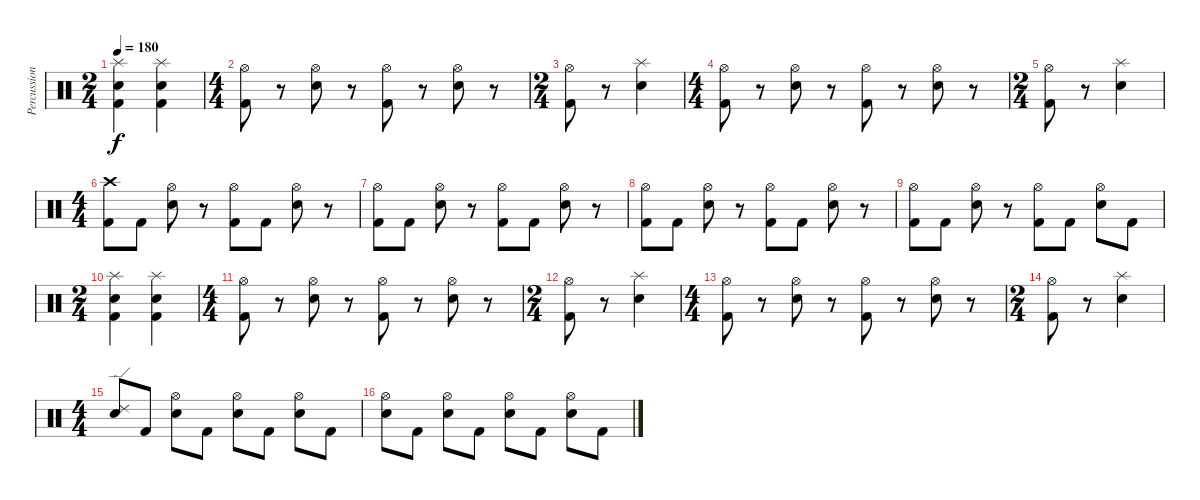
\track ("Percussion" "Percussion") {instrument percussion}
\staff {score}
\articulation defaults
\ts (2 4)
\tempo 180
\clef neutral
\ks c
("Splash (hit)" "Electric Snare (hit)" "Kick (hit) 2").4{dy f} ("Splash (hit)" "Electric Snare (hit)" "Kick (hit) 2").4 |
\ts (4 4)
("Hi-Hat (open)" "Kick (hit) 2").8 r.8 ("Hi-Hat (open)" "Electric Snare (hit)").8 r.8 ("Hi-Hat (open)" "Kick (hit) 2").8 r.8 ("Hi-Hat (open)" "Electric Snare (hit)").8 r.8 |
\ts (2 4)
("Hi-Hat (open)" "Kick (hit) 2").8 r.8 ("Splash (hit)" "Electric Snare (hit)").4 |
\ts (4 4)
("Hi-Hat (open)" "Kick (hit) 2").8 r.8 ("Hi-Hat (open)" "Electric Snare (hit)").8 r.8 ("Hi-Hat (open)" "Kick (hit) 2").8 r.8 ("Hi-Hat (open)" "Electric Snare (hit)").8 r.8 |
\ts (2 4)
("Hi-Hat (open)" "Kick (hit) 2").8 r.8 ("Splash (hit)" "Electric Snare (hit)").4 |
\ts (4 4)
("Crash high (hit)" "Kick (hit) 2").8 "Kick (hit) 2".8 ("Hi-Hat (open)" "Electric Snare (hit)").8 r.8 ("Hi-Hat (open)" "Kick (hit) 2").8 "Kick (hit) 2".8 ("Hi-Hat (open)" "Electric Snare (hit)").8 r.8 |
("Hi-Hat (open)" "Kick (hit) 2").8 "Kick (hit) 2".8 ("Hi-Hat (open)" "Electric Snare (hit)").8 r.8 ("Hi-Hat (open)" "Kick (hit) 2").8 "Kick (hit) 2".8 ("Hi-Hat (open)" "Electric Snare (hit)").8 r.8 |
("Hi-Hat (open)" "Kick (hit) 2").8 "Kick (hit) 2".8 ("Hi-Hat (open)" "Electric Snare (hit)").8 r.8 ("Hi-Hat (open)" "Kick (hit) 2").8 "Kick (hit) 2".8 ("Hi-Hat (open)" "Electric Snare (hit)").8 r.8 |
("Hi-Hat (open)" "Kick (hit) 2").8 "Kick (hit) 2".8 ("Hi-Hat (open)" "Electric Snare (hit)").8 r.8 ("Hi-Hat (open)" "Kick (hit) 2").8 "Kick (hit) 2".8 ("Hi-Hat (open)" "Electric Snare (hit)").8 "Kick (hit) 2".8 |
\ts (2 4)
("Splash (hit)" "Electric Snare (hit)" "Kick (hit) 2").4 ("Splash (hit)" "Electric Snare (hit)" "Kick (hit) 2").4 |
\ts (4 4)
("Hi-Hat (open)" "Kick (hit) 2").8 r.8 ("Hi-Hat (open)" "Electric Snare (hit)").8 r.8 ("Hi-Hat (open)" "Kick (hit) 2").8 r.8 ("Hi-Hat (open)" "Electric Snare (hit)").8 r.8 |
\ts (2 4)
("Hi-Hat (open)" "Kick (hit) 2").8 r.8 ("Splash (hit)" "Electric Snare (hit)").4 |
\ts (4 4)
("Hi-Hat (open)" "Kick (hit) 2").8 r.8 ("Hi-Hat (open)" "Electric Snare (hit)").8 r.8 ("Hi-Hat (open)" "Kick (hit) 2").8 r.8 ("Hi-Hat (open)" "Electric Snare (hit)").8 r.8 |
\ts (2 4)
("Hi-Hat (open)" "Kick (hit) 2").8 r.8 ("Splash (hit)" "Electric Snare (hit)").4 |
\ts (4 4)
("Ride (edge) 2" "Electric Snare (hit)").8 "Kick (hit) 2".8 ("Hi-Hat (open)" "Electric Snare (hit)").8 "Kick (hit) 2".8 ("Hi-Hat (open)" "Electric Snare (hit)").8 "Kick (hit) 2".8 ("Hi-Hat (open)" "Electric Snare (hit)").8 "Kick (hit) 2".8 |
("Hi-Hat (open)" "Electric Snare (hit)").8 "Kick (hit) 2".8 ("Hi-Hat (open)" "Electric Snare (hit)").8 "Kick (hit) 2".8 ("Hi-Hat (open)" "Electric Snare (hit)").8 "Kick (hit) 2".8 ("Hi-Hat (open)" "Electric Snare (hit)").8 "Kick (hit) 2".8
